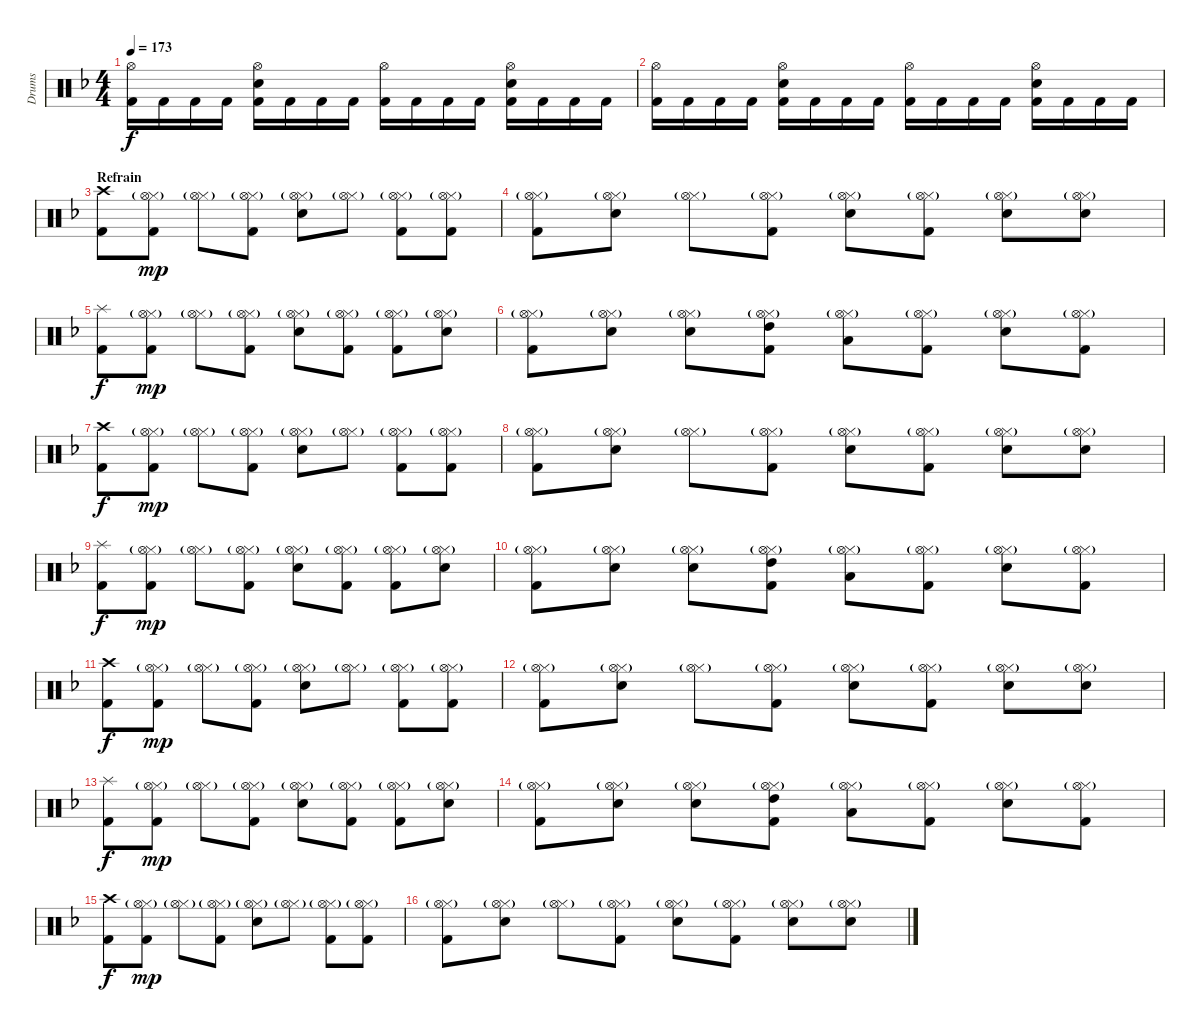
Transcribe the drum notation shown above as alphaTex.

\track ("Drums" "Drums") {instrument percussion}
\staff {score}
\articulation defaults
\ts (4 4)
\tempo 173
\clef neutral
\ks dminor
("Hi-Hat (open)" "Kick (hit) 2").16{dy f} "Kick (hit) 2".16 "Kick (hit) 2".16 "Kick (hit) 2".16 ("Hi-Hat (open)" "Snare (hit) 2" "Kick (hit) 2").16 "Kick (hit) 2".16 "Kick (hit) 2".16 "Kick (hit) 2".16 ("Hi-Hat (open)" "Kick (hit) 2").16 "Kick (hit) 2".16 "Kick (hit) 2".16 "Kick (hit) 2".16 ("Hi-Hat (open)" "Snare (hit) 2" "Kick (hit) 2").16 "Kick (hit) 2".16 "Kick (hit) 2".16 "Kick (hit) 2".16 |
("Hi-Hat (open)" "Kick (hit) 2").16 "Kick (hit) 2".16 "Kick (hit) 2".16 "Kick (hit) 2".16 ("Hi-Hat (open)" "Snare (hit) 2" "Kick (hit) 2").16 "Kick (hit) 2".16 "Kick (hit) 2".16 "Kick (hit) 2".16 ("Hi-Hat (open)" "Kick (hit) 2").16 "Kick (hit) 2".16 "Kick (hit) 2".16 "Kick (hit) 2".16 ("Hi-Hat (open)" "Snare (hit) 2" "Kick (hit) 2").16 "Kick (hit) 2".16 "Kick (hit) 2".16 "Kick (hit) 2".16 |
\section ("" "Refrain")
("Crash high (hit)" "Kick (hit) 2").8 ("Hi-Hat (closed)"{g} "Hi-Hat (open)"{g} "Kick (hit) 2").8{dy mp} ("Hi-Hat (closed)"{g} "Hi-Hat (open)"{g}).8 ("Hi-Hat (closed)"{g} "Hi-Hat (open)"{g} "Kick (hit) 2").8 ("Hi-Hat (closed)"{g} "Hi-Hat (open)"{g} "Snare (hit) 2").8 ("Hi-Hat (closed)"{g} "Hi-Hat (open)"{g}).8 ("Hi-Hat (closed)"{g} "Hi-Hat (open)"{g} "Kick (hit) 2").8 ("Hi-Hat (closed)"{g} "Hi-Hat (open)"{g} "Kick (hit) 2").8 |
("Hi-Hat (closed)"{g} "Hi-Hat (open)"{g} "Kick (hit) 2").8 ("Hi-Hat (closed)"{g} "Hi-Hat (open)"{g} "Snare (hit) 2").8 ("Hi-Hat (closed)"{g} "Hi-Hat (open)"{g}).8 ("Hi-Hat (closed)"{g} "Hi-Hat (open)"{g} "Kick (hit) 2").8 ("Hi-Hat (closed)"{g} "Hi-Hat (open)"{g} "Snare (hit) 2").8 ("Hi-Hat (closed)"{g} "Hi-Hat (open)"{g} "Kick (hit) 2").8 ("Hi-Hat (closed)"{g} "Hi-Hat (open)"{g} "Snare (hit) 2").8 ("Hi-Hat (closed)"{g} "Hi-Hat (open)"{g} "Snare (hit) 2").8 |
("Splash (hit)" "Kick (hit) 2").8{dy f} ("Hi-Hat (closed)"{g} "Hi-Hat (open)"{g} "Kick (hit) 2").8{dy mp} ("Hi-Hat (closed)"{g} "Hi-Hat (open)"{g}).8 ("Hi-Hat (closed)"{g} "Hi-Hat (open)"{g} "Kick (hit) 2").8 ("Hi-Hat (closed)"{g} "Hi-Hat (open)"{g} "Snare (hit) 2").8 ("Hi-Hat (closed)"{g} "Hi-Hat (open)"{g} "Kick (hit) 2").8 ("Hi-Hat (closed)"{g} "Hi-Hat (open)"{g} "Kick (hit) 2").8 ("Hi-Hat (closed)"{g} "Hi-Hat (open)"{g} "Snare (hit) 2").8 |
("Hi-Hat (closed)"{g} "Hi-Hat (open)"{g} "Kick (hit) 2").8 ("Hi-Hat (closed)"{g} "Hi-Hat (open)"{g} "Snare (hit) 2").8 ("Hi-Hat (closed)"{g} "Hi-Hat (open)"{g} "Snare (hit) 2").8 ("Hi-Hat (closed)"{g} "Hi-Hat (open)"{g} "High Tom (hit)" "Kick (hit) 2").8 ("Hi-Hat (closed)"{g} "Hi-Hat (open)"{g} "Low Tom (hit)").8 ("Hi-Hat (closed)"{g} "Hi-Hat (open)"{g} "Kick (hit) 2").8 ("Hi-Hat (closed)"{g} "Hi-Hat (open)"{g} "Snare (hit) 2").8 ("Hi-Hat (closed)"{g} "Hi-Hat (open)"{g} "Kick (hit) 2").8 |
("Crash high (hit)" "Kick (hit) 2").8{dy f} ("Hi-Hat (closed)"{g} "Hi-Hat (open)"{g} "Kick (hit) 2").8{dy mp} ("Hi-Hat (closed)"{g} "Hi-Hat (open)"{g}).8 ("Hi-Hat (closed)"{g} "Hi-Hat (open)"{g} "Kick (hit) 2").8 ("Hi-Hat (closed)"{g} "Hi-Hat (open)"{g} "Snare (hit) 2").8 ("Hi-Hat (closed)"{g} "Hi-Hat (open)"{g}).8 ("Hi-Hat (closed)"{g} "Hi-Hat (open)"{g} "Kick (hit) 2").8 ("Hi-Hat (closed)"{g} "Hi-Hat (open)"{g} "Kick (hit) 2").8 |
("Hi-Hat (closed)"{g} "Hi-Hat (open)"{g} "Kick (hit) 2").8 ("Hi-Hat (closed)"{g} "Hi-Hat (open)"{g} "Snare (hit) 2").8 ("Hi-Hat (closed)"{g} "Hi-Hat (open)"{g}).8 ("Hi-Hat (closed)"{g} "Hi-Hat (open)"{g} "Kick (hit) 2").8 ("Hi-Hat (closed)"{g} "Hi-Hat (open)"{g} "Snare (hit) 2").8 ("Hi-Hat (closed)"{g} "Hi-Hat (open)"{g} "Kick (hit) 2").8 ("Hi-Hat (closed)"{g} "Hi-Hat (open)"{g} "Snare (hit) 2").8 ("Hi-Hat (closed)"{g} "Hi-Hat (open)"{g} "Snare (hit) 2").8 |
("Splash (hit)" "Kick (hit) 2").8{dy f} ("Hi-Hat (closed)"{g} "Hi-Hat (open)"{g} "Kick (hit) 2").8{dy mp} ("Hi-Hat (closed)"{g} "Hi-Hat (open)"{g}).8 ("Hi-Hat (closed)"{g} "Hi-Hat (open)"{g} "Kick (hit) 2").8 ("Hi-Hat (closed)"{g} "Hi-Hat (open)"{g} "Snare (hit) 2").8 ("Hi-Hat (closed)"{g} "Hi-Hat (open)"{g} "Kick (hit) 2").8 ("Hi-Hat (closed)"{g} "Hi-Hat (open)"{g} "Kick (hit) 2").8 ("Hi-Hat (closed)"{g} "Hi-Hat (open)"{g} "Snare (hit) 2").8 |
("Hi-Hat (closed)"{g} "Hi-Hat (open)"{g} "Kick (hit) 2").8 ("Hi-Hat (closed)"{g} "Hi-Hat (open)"{g} "Snare (hit) 2").8 ("Hi-Hat (closed)"{g} "Hi-Hat (open)"{g} "Snare (hit) 2").8 ("Hi-Hat (closed)"{g} "Hi-Hat (open)"{g} "High Tom (hit)" "Kick (hit) 2").8 ("Hi-Hat (closed)"{g} "Hi-Hat (open)"{g} "Low Tom (hit)").8 ("Hi-Hat (closed)"{g} "Hi-Hat (open)"{g} "Kick (hit) 2").8 ("Hi-Hat (closed)"{g} "Hi-Hat (open)"{g} "Snare (hit) 2").8 ("Hi-Hat (closed)"{g} "Hi-Hat (open)"{g} "Kick (hit) 2").8 |
("Crash high (hit)" "Kick (hit) 2").8{dy f} ("Hi-Hat (closed)"{g} "Hi-Hat (open)"{g} "Kick (hit) 2").8{dy mp} ("Hi-Hat (closed)"{g} "Hi-Hat (open)"{g}).8 ("Hi-Hat (closed)"{g} "Hi-Hat (open)"{g} "Kick (hit) 2").8 ("Hi-Hat (closed)"{g} "Hi-Hat (open)"{g} "Snare (hit) 2").8 ("Hi-Hat (closed)"{g} "Hi-Hat (open)"{g}).8 ("Hi-Hat (closed)"{g} "Hi-Hat (open)"{g} "Kick (hit) 2").8 ("Hi-Hat (closed)"{g} "Hi-Hat (open)"{g} "Kick (hit) 2").8 |
("Hi-Hat (closed)"{g} "Hi-Hat (open)"{g} "Kick (hit) 2").8 ("Hi-Hat (closed)"{g} "Hi-Hat (open)"{g} "Snare (hit) 2").8 ("Hi-Hat (closed)"{g} "Hi-Hat (open)"{g}).8 ("Hi-Hat (closed)"{g} "Hi-Hat (open)"{g} "Kick (hit) 2").8 ("Hi-Hat (closed)"{g} "Hi-Hat (open)"{g} "Snare (hit) 2").8 ("Hi-Hat (closed)"{g} "Hi-Hat (open)"{g} "Kick (hit) 2").8 ("Hi-Hat (closed)"{g} "Hi-Hat (open)"{g} "Snare (hit) 2").8 ("Hi-Hat (closed)"{g} "Hi-Hat (open)"{g} "Snare (hit) 2").8 |
("Splash (hit)" "Kick (hit) 2").8{dy f} ("Hi-Hat (closed)"{g} "Hi-Hat (open)"{g} "Kick (hit) 2").8{dy mp} ("Hi-Hat (closed)"{g} "Hi-Hat (open)"{g}).8 ("Hi-Hat (closed)"{g} "Hi-Hat (open)"{g} "Kick (hit) 2").8 ("Hi-Hat (closed)"{g} "Hi-Hat (open)"{g} "Snare (hit) 2").8 ("Hi-Hat (closed)"{g} "Hi-Hat (open)"{g} "Kick (hit) 2").8 ("Hi-Hat (closed)"{g} "Hi-Hat (open)"{g} "Kick (hit) 2").8 ("Hi-Hat (closed)"{g} "Hi-Hat (open)"{g} "Snare (hit) 2").8 |
("Hi-Hat (closed)"{g} "Hi-Hat (open)"{g} "Kick (hit) 2").8 ("Hi-Hat (closed)"{g} "Hi-Hat (open)"{g} "Snare (hit) 2").8 ("Hi-Hat (closed)"{g} "Hi-Hat (open)"{g} "Snare (hit) 2").8 ("Hi-Hat (closed)"{g} "Hi-Hat (open)"{g} "High Tom (hit)" "Kick (hit) 2").8 ("Hi-Hat (closed)"{g} "Hi-Hat (open)"{g} "Low Tom (hit)").8 ("Hi-Hat (closed)"{g} "Hi-Hat (open)"{g} "Kick (hit) 2").8 ("Hi-Hat (closed)"{g} "Hi-Hat (open)"{g} "Snare (hit) 2").8 ("Hi-Hat (closed)"{g} "Hi-Hat (open)"{g} "Kick (hit) 2").8 |
("Crash high (hit)" "Kick (hit) 2").8{dy f} ("Hi-Hat (closed)"{g} "Hi-Hat (open)"{g} "Kick (hit) 2").8{dy mp} ("Hi-Hat (closed)"{g} "Hi-Hat (open)"{g}).8 ("Hi-Hat (closed)"{g} "Hi-Hat (open)"{g} "Kick (hit) 2").8 ("Hi-Hat (closed)"{g} "Hi-Hat (open)"{g} "Snare (hit) 2").8 ("Hi-Hat (closed)"{g} "Hi-Hat (open)"{g}).8 ("Hi-Hat (closed)"{g} "Hi-Hat (open)"{g} "Kick (hit) 2").8 ("Hi-Hat (closed)"{g} "Hi-Hat (open)"{g} "Kick (hit) 2").8 |
("Hi-Hat (closed)"{g} "Hi-Hat (open)"{g} "Kick (hit) 2").8 ("Hi-Hat (closed)"{g} "Hi-Hat (open)"{g} "Snare (hit) 2").8 ("Hi-Hat (closed)"{g} "Hi-Hat (open)"{g}).8 ("Hi-Hat (closed)"{g} "Hi-Hat (open)"{g} "Kick (hit) 2").8 ("Hi-Hat (closed)"{g} "Hi-Hat (open)"{g} "Snare (hit) 2").8 ("Hi-Hat (closed)"{g} "Hi-Hat (open)"{g} "Kick (hit) 2").8 ("Hi-Hat (closed)"{g} "Hi-Hat (open)"{g} "Snare (hit) 2").8 ("Hi-Hat (closed)"{g} "Hi-Hat (open)"{g} "Snare (hit) 2").8
